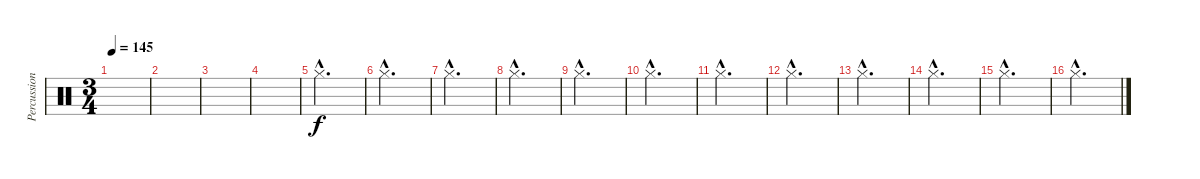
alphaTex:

\track ("Percussion" "Percussion") {instrument percussion}
\staff {score}
\articulation defaults
\ts (3 4)
\tempo 145
\clef neutral
\ks c
|
|
|
|
"Hi-Hat (closed)"{hac}.2{d} |
"Hi-Hat (closed)"{hac}.2{d} |
"Hi-Hat (closed)"{hac}.2{d} |
"Hi-Hat (closed)"{hac}.2{d} |
"Hi-Hat (closed)"{hac}.2{d} |
"Hi-Hat (closed)"{hac}.2{d} |
"Hi-Hat (closed)"{hac}.2{d} |
"Hi-Hat (closed)"{hac}.2{d} |
"Hi-Hat (closed)"{hac}.2{d} |
"Hi-Hat (closed)"{hac}.2{d} |
"Hi-Hat (closed)"{hac}.2{d} |
"Hi-Hat (closed)"{hac}.2{d}
